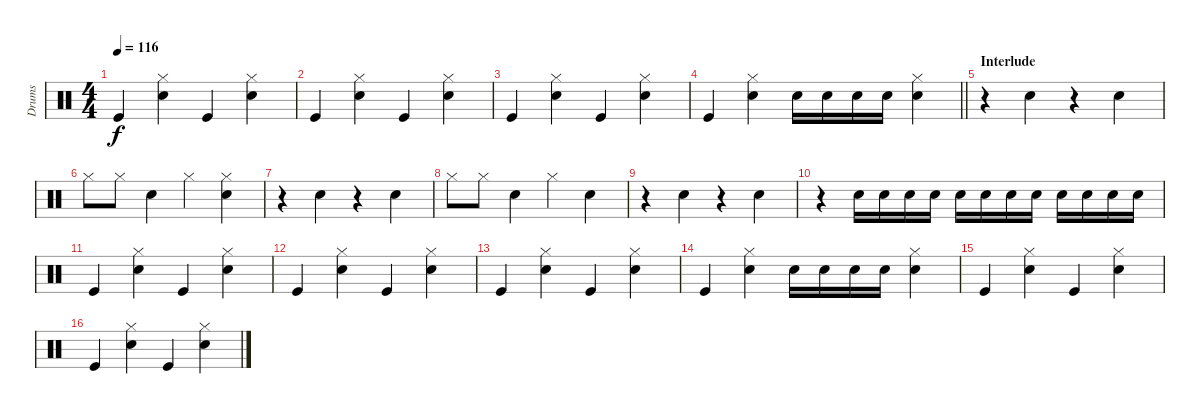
\track ("Drums" "Drums") {instrument percussion}
\staff {score}
\articulation defaults
\ts (4 4)
\tempo 116
\clef neutral
\ks c "Kick (hit)".4{dy f}
("Hi-Hat (closed)" "Snare (hit) 2").4 "Kick (hit)".4 ("Hi-Hat (closed)" "Snare (hit) 2").4 |
"Kick (hit)".4 ("Hi-Hat (closed)" "Snare (hit) 2").4 "Kick (hit)".4 ("Hi-Hat (closed)" "Snare (hit) 2").4 |
"Kick (hit)".4 ("Hi-Hat (closed)" "Snare (hit) 2").4 "Kick (hit)".4 ("Hi-Hat (closed)" "Snare (hit) 2").4 |
\barLineRight lightlight "Kick (hit)".4
("Hi-Hat (closed)" "Snare (hit) 2").4 "Snare (hit) 2".16 "Snare (hit) 2".16 "Snare (hit) 2".16 "Snare (hit) 2".16 ("Hi-Hat (closed)" "Snare (hit) 2").4 |
\section ("" "Interlude")
r.4 "Hand Clap (hit)".4 r.4 "Hand Clap (hit)".4 |
"Hi-Hat (closed)".8 "Hi-Hat (closed)".8 "Hand Clap (hit)".4 "Hi-Hat (closed)".4 ("Hi-Hat (closed)" "Hand Clap (hit)").4 |
r.4 "Hand Clap (hit)".4 r.4 "Hand Clap (hit)".4 |
"Hi-Hat (closed)".8 "Hi-Hat (closed)".8 "Hand Clap (hit)".4 "Hi-Hat (closed)".4 "Hand Clap (hit)".4 |
r.4 "Hand Clap (hit)".4 r.4 "Hand Clap (hit)".4 |
r.4 "Snare (hit) 2".16 "Snare (hit) 2".16 "Snare (hit) 2".16 "Snare (hit) 2".16 "Snare (hit) 2".16 "Snare (hit) 2".16 "Snare (hit) 2".16 "Snare (hit) 2".16 "Snare (hit) 2".16 "Snare (hit) 2".16 "Snare (hit) 2".16 "Snare (hit) 2".16 |
"Kick (hit)".4 ("Hi-Hat (closed)" "Snare (hit) 2").4 "Kick (hit)".4 ("Hi-Hat (closed)" "Snare (hit) 2").4 |
"Kick (hit)".4 ("Hi-Hat (closed)" "Snare (hit) 2").4 "Kick (hit)".4 ("Hi-Hat (closed)" "Snare (hit) 2").4 |
"Kick (hit)".4 ("Hi-Hat (closed)" "Snare (hit) 2").4 "Kick (hit)".4 ("Hi-Hat (closed)" "Snare (hit) 2").4 |
"Kick (hit)".4 ("Hi-Hat (closed)" "Snare (hit) 2").4 "Snare (hit) 2".16 "Snare (hit) 2".16 "Snare (hit) 2".16 "Snare (hit) 2".16 ("Hi-Hat (closed)" "Snare (hit) 2").4 |
"Kick (hit)".4 ("Hi-Hat (closed)" "Snare (hit) 2").4 "Kick (hit)".4 ("Hi-Hat (closed)" "Snare (hit) 2").4 |
"Kick (hit)".4 ("Hi-Hat (closed)" "Snare (hit) 2").4 "Kick (hit)".4 ("Hi-Hat (closed)" "Snare (hit) 2").4
